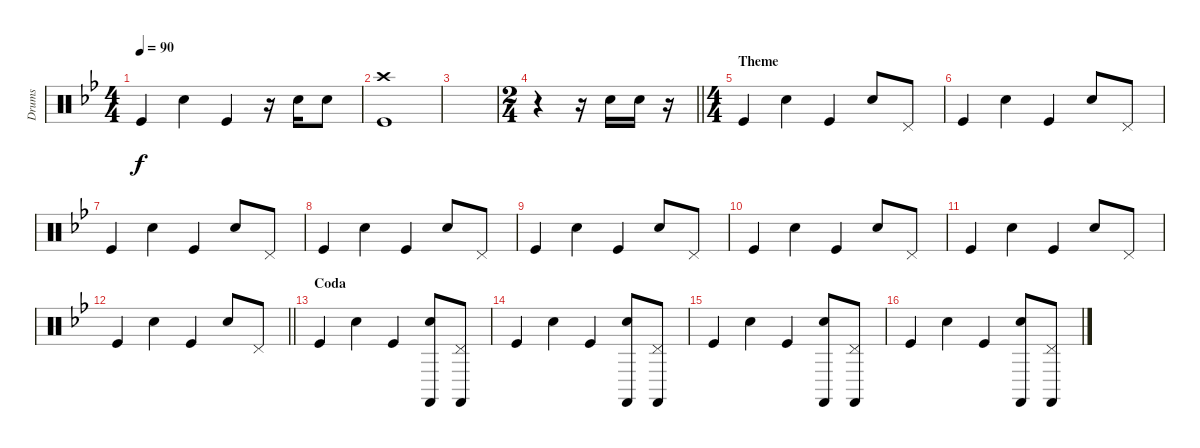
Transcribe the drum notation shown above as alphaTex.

\track ("Drums" "Drums") {instrument percussion}
\staff {score}
\articulation defaults
\ts (4 4)
\tempo 90
\clef neutral
\ks bb "Kick (hit)".4{dy f} "Electric Snare (hit)".4 "Kick (hit)".4
r.16 "Electric Snare (hit)".16 "Electric Snare (hit)".8 |
("Kick (hit)" "Crash high (hit)").1 |
|
\ts (2 4)
\barLineRight lightlight
r.4 r.16 "Electric Snare (hit)".16 "Electric Snare (hit)".16 r.16 |
\ts (4 4)
\section ("" "Theme")
"Kick (hit)".4 "Electric Snare (hit)".4 "Kick (hit)".4 "Electric Snare (hit)".8 "Pedal Hi-Hat (hit)".8 |
"Kick (hit)".4 "Electric Snare (hit)".4 "Kick (hit)".4 "Electric Snare (hit)".8 "Pedal Hi-Hat (hit)".8 |
"Kick (hit)".4 "Electric Snare (hit)".4 "Kick (hit)".4 "Electric Snare (hit)".8 "Pedal Hi-Hat (hit)".8 |
"Kick (hit)".4 "Electric Snare (hit)".4 "Kick (hit)".4 "Electric Snare (hit)".8 "Pedal Hi-Hat (hit)".8 |
"Kick (hit)".4 "Electric Snare (hit)".4 "Kick (hit)".4 "Electric Snare (hit)".8 "Pedal Hi-Hat (hit)".8 |
"Kick (hit)".4 "Electric Snare (hit)".4 "Kick (hit)".4 "Electric Snare (hit)".8 "Pedal Hi-Hat (hit)".8 |
"Kick (hit)".4 "Electric Snare (hit)".4 "Kick (hit)".4 "Electric Snare (hit)".8 "Pedal Hi-Hat (hit)".8 |
\barLineRight lightlight "Kick (hit)".4 "Electric Snare (hit)".4 "Kick (hit)".4 "Electric Snare (hit)".8 "Pedal Hi-Hat (hit)".8
|
\section ("" "Coda")
"Kick (hit)".4 "Electric Snare (hit)".4 "Kick (hit)".4 ("Electric Snare (hit)" "Castanets (hit)").8 ("Castanets (hit)" "Pedal Hi-Hat (hit)").8 |
"Kick (hit)".4 "Electric Snare (hit)".4 "Kick (hit)".4 ("Electric Snare (hit)" "Castanets (hit)").8 ("Castanets (hit)" "Pedal Hi-Hat (hit)").8 |
"Kick (hit)".4 "Electric Snare (hit)".4 "Kick (hit)".4 ("Electric Snare (hit)" "Castanets (hit)").8 ("Castanets (hit)" "Pedal Hi-Hat (hit)").8 |
"Kick (hit)".4 "Electric Snare (hit)".4 "Kick (hit)".4 ("Electric Snare (hit)" "Castanets (hit)").8 ("Castanets (hit)" "Pedal Hi-Hat (hit)").8
